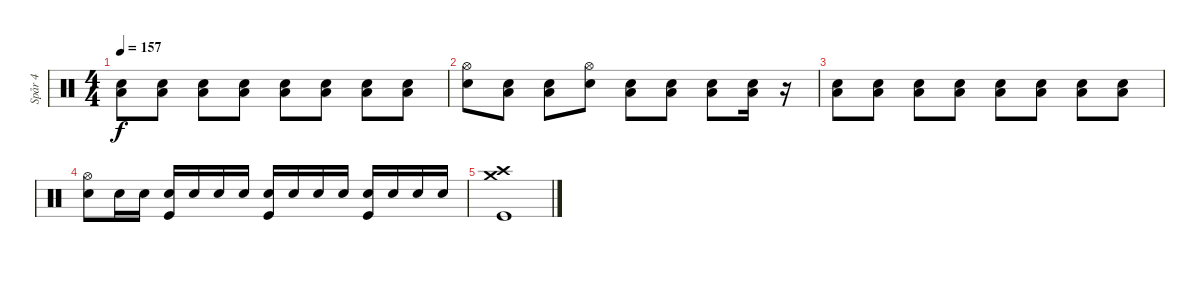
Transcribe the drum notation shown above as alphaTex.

\track ("Spår 4" "Spår 4") {instrument percussion}
\staff {score}
\articulation defaults
\ts (4 4)
\tempo 157
\clef neutral
\ks c
("Low Floor Tom (hit)" "Snare (hit) 2").8{dy f volume 13} ("Low Floor Tom (hit)" "Snare (hit) 2").8 ("Low Floor Tom (hit)" "Snare (hit) 2").8 ("Low Floor Tom (hit)" "Snare (hit) 2").8 ("Low Floor Tom (hit)" "Snare (hit) 2").8 ("Low Floor Tom (hit)" "Snare (hit) 2").8 ("Low Floor Tom (hit)" "Snare (hit) 2").8 ("Low Floor Tom (hit)" "Snare (hit) 2").8 |
("Hi-Hat (open)" "Snare (hit) 2").8 ("Low Floor Tom (hit)" "Snare (hit) 2").8 ("Low Floor Tom (hit)" "Snare (hit) 2").8 ("Hi-Hat (open)" "Snare (hit) 2").8 ("Low Floor Tom (hit)" "Snare (hit) 2").8 ("Low Floor Tom (hit)" "Snare (hit) 2").8 ("Low Floor Tom (hit)" "Snare (hit) 2").8 ("Low Floor Tom (hit)" "Snare (hit) 2").16 r.16{volume 9} |
("Low Floor Tom (hit)" "Snare (hit) 2").8{volume 13} ("Low Floor Tom (hit)" "Snare (hit) 2").8 ("Low Floor Tom (hit)" "Snare (hit) 2").8 ("Low Floor Tom (hit)" "Snare (hit) 2").8 ("Low Floor Tom (hit)" "Snare (hit) 2").8 ("Low Floor Tom (hit)" "Snare (hit) 2").8 ("Low Floor Tom (hit)" "Snare (hit) 2").8 ("Low Floor Tom (hit)" "Snare (hit) 2").8 |
("Hi-Hat (open)" "Snare (hit) 2").8 "Snare (hit) 2".16 "Snare (hit) 2".16 ("Snare (hit) 2" "Kick (hit)").16 "Snare (hit) 2".16 "Snare (hit) 2".16 "Snare (hit) 2".16 ("Snare (hit) 2" "Kick (hit)").16 "Snare (hit) 2".16 "Snare (hit) 2".16 "Snare (hit) 2".16 ("Snare (hit) 2" "Kick (hit)").16 "Snare (hit) 2".16 "Snare (hit) 2".16 "Snare (hit) 2".16 |
("Crash medium (hit)" "Crash high (hit)" "Kick (hit)").1
